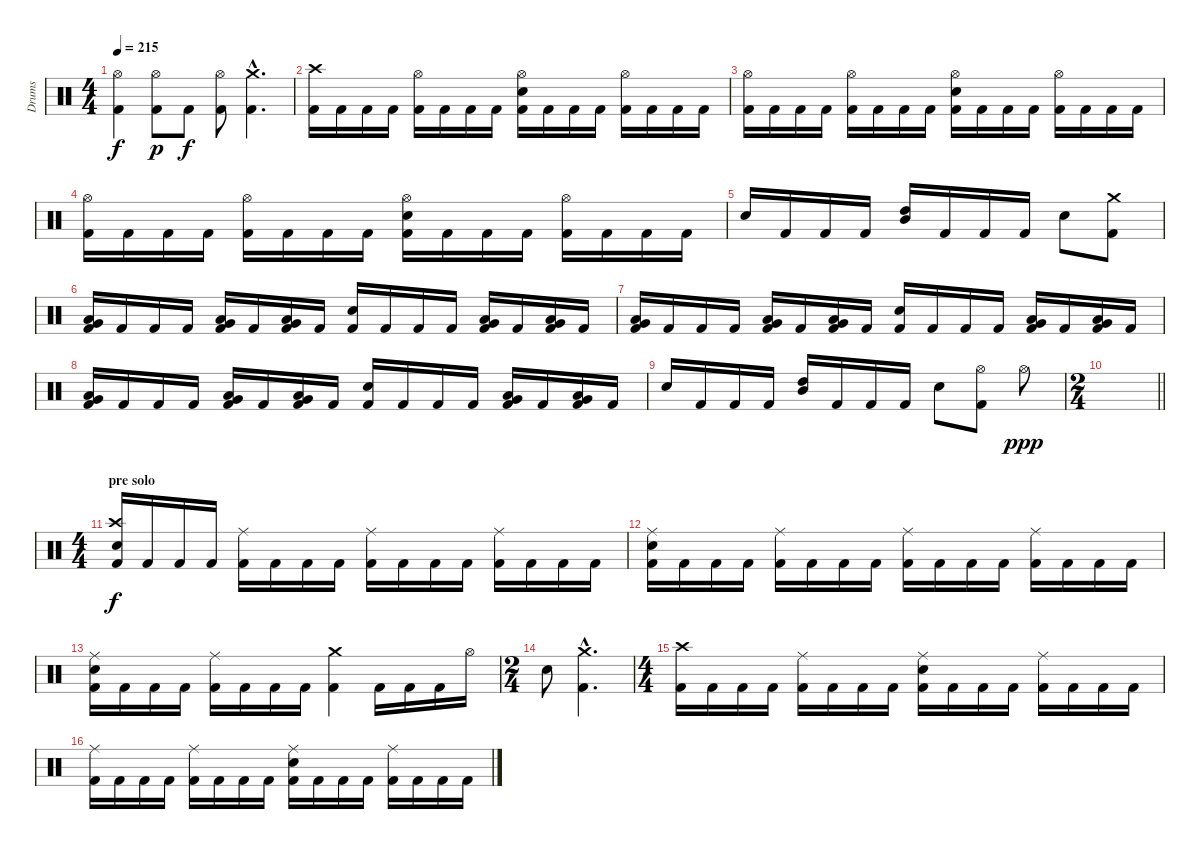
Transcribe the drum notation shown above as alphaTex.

\track ("Drums" "Drums") {instrument percussion}
\staff {score}
\articulation defaults
\ts (4 4)
\tempo 215
\clef neutral
\ks c
("Hi-Hat (open)" "Kick (hit) 2").4{dy f} ("Hi-Hat (open)" "Kick (hit) 2").8{dy p} "Kick (hit) 2".8{dy f} ("Hi-Hat (open)" "Kick (hit) 2").8 ("Crash medium (hit)"{hac} "Kick (hit) 2"{hac}).4{d} |
("Crash high (hit)" "Kick (hit) 2").16 "Kick (hit) 2".16 "Kick (hit) 2".16 "Kick (hit) 2".16 ("Hi-Hat (open)" "Kick (hit) 2").16 "Kick (hit) 2".16 "Kick (hit) 2".16 "Kick (hit) 2".16 ("Hi-Hat (open)" "Snare (hit) 2" "Kick (hit) 2").16 "Kick (hit) 2".16 "Kick (hit) 2".16 "Kick (hit) 2".16 ("Hi-Hat (open)" "Kick (hit) 2").16 "Kick (hit) 2".16 "Kick (hit) 2".16 "Kick (hit) 2".16 |
("Hi-Hat (open)" "Kick (hit) 2").16 "Kick (hit) 2".16 "Kick (hit) 2".16 "Kick (hit) 2".16 ("Hi-Hat (open)" "Kick (hit) 2").16 "Kick (hit) 2".16 "Kick (hit) 2".16 "Kick (hit) 2".16 ("Hi-Hat (open)" "Snare (hit) 2" "Kick (hit) 2").16 "Kick (hit) 2".16 "Kick (hit) 2".16 "Kick (hit) 2".16 ("Hi-Hat (open)" "Kick (hit) 2").16 "Kick (hit) 2".16 "Kick (hit) 2".16 "Kick (hit) 2".16 |
("Hi-Hat (open)" "Kick (hit) 2").16 "Kick (hit) 2".16 "Kick (hit) 2".16 "Kick (hit) 2".16 ("Hi-Hat (open)" "Kick (hit) 2").16 "Kick (hit) 2".16 "Kick (hit) 2".16 "Kick (hit) 2".16 ("Hi-Hat (open)" "Snare (hit) 2" "Kick (hit) 2").16 "Kick (hit) 2".16 "Kick (hit) 2".16 "Kick (hit) 2".16 ("Hi-Hat (open)" "Kick (hit) 2").16 "Kick (hit) 2".16 "Kick (hit) 2".16 "Kick (hit) 2".16 |
"Snare (hit) 2".16 "Kick (hit) 2".16 "Kick (hit) 2".16 "Kick (hit) 2".16 ("High Tom (hit)" "Mid Tom (hit)").16 "Kick (hit) 2".16 "Kick (hit) 2".16 "Kick (hit) 2".16 "Snare (hit) 2".8 ("Crash medium (hit)" "Kick (hit) 2").8 |
("Very Low Tom (hit)" "Low Tom (hit)" "Kick (hit) 2").16 "Kick (hit) 2".16 "Kick (hit) 2".16 "Kick (hit) 2".16 ("Very Low Tom (hit)" "Low Tom (hit)" "Kick (hit) 2").16 "Kick (hit) 2".16 ("Very Low Tom (hit)" "Low Tom (hit)" "Kick (hit) 2").16 "Kick (hit) 2".16 ("Snare (hit) 2" "Kick (hit) 2").16 "Kick (hit) 2".16 "Kick (hit) 2".16 "Kick (hit) 2".16 ("Very Low Tom (hit)" "Low Tom (hit)" "Kick (hit) 2").16 "Kick (hit) 2".16 ("Very Low Tom (hit)" "Low Tom (hit)" "Kick (hit) 2").16 "Kick (hit) 2".16 |
("Very Low Tom (hit)" "Low Tom (hit)" "Kick (hit) 2").16 "Kick (hit) 2".16 "Kick (hit) 2".16 "Kick (hit) 2".16 ("Very Low Tom (hit)" "Low Tom (hit)" "Kick (hit) 2").16 "Kick (hit) 2".16 ("Very Low Tom (hit)" "Low Tom (hit)" "Kick (hit) 2").16 "Kick (hit) 2".16 ("Snare (hit) 2" "Kick (hit) 2").16 "Kick (hit) 2".16 "Kick (hit) 2".16 "Kick (hit) 2".16 ("Very Low Tom (hit)" "Low Tom (hit)" "Kick (hit) 2").16 "Kick (hit) 2".16 ("Very Low Tom (hit)" "Low Tom (hit)" "Kick (hit) 2").16 "Kick (hit) 2".16 |
("Very Low Tom (hit)" "Low Tom (hit)" "Kick (hit) 2").16 "Kick (hit) 2".16 "Kick (hit) 2".16 "Kick (hit) 2".16 ("Very Low Tom (hit)" "Low Tom (hit)" "Kick (hit) 2").16 "Kick (hit) 2".16 ("Very Low Tom (hit)" "Low Tom (hit)" "Kick (hit) 2").16 "Kick (hit) 2".16 ("Snare (hit) 2" "Kick (hit) 2").16 "Kick (hit) 2".16 "Kick (hit) 2".16 "Kick (hit) 2".16 ("Very Low Tom (hit)" "Low Tom (hit)" "Kick (hit) 2").16 "Kick (hit) 2".16 ("Very Low Tom (hit)" "Low Tom (hit)" "Kick (hit) 2").16 "Kick (hit) 2".16 |
"Snare (hit) 2".16 "Kick (hit) 2".16 "Kick (hit) 2".16 "Kick (hit) 2".16 ("High Tom (hit)" "Mid Tom (hit)").16 "Kick (hit) 2".16 "Kick (hit) 2".16 "Kick (hit) 2".16 "Snare (hit) 2".8 ("Hi-Hat (open)" "Kick (hit) 2").8 "Hi-Hat (open)".8{dy ppp} |
\ts (2 4)
\barLineRight lightlight
|
\ts (4 4)
\section ("" "pre solo")
("Crash high (hit)" "Snare (hit) 2" "Kick (hit) 2").16{dy f} "Kick (hit) 2".16 "Kick (hit) 2".16 "Kick (hit) 2".16 ("Ride (middle)" "Kick (hit) 2").16 "Kick (hit) 2".16 "Kick (hit) 2".16 "Kick (hit) 2".16 ("Ride (middle)" "Kick (hit) 2").16 "Kick (hit) 2".16 "Kick (hit) 2".16 "Kick (hit) 2".16 ("Ride (middle)" "Kick (hit) 2").16 "Kick (hit) 2".16 "Kick (hit) 2".16 "Kick (hit) 2".16 |
("Ride (middle)" "Snare (hit) 2" "Kick (hit) 2").16 "Kick (hit) 2".16 "Kick (hit) 2".16 "Kick (hit) 2".16 ("Ride (middle)" "Kick (hit) 2").16 "Kick (hit) 2".16 "Kick (hit) 2".16 "Kick (hit) 2".16 ("Ride (middle)" "Kick (hit) 2").16 "Kick (hit) 2".16 "Kick (hit) 2".16 "Kick (hit) 2".16 ("Ride (middle)" "Kick (hit) 2").16 "Kick (hit) 2".16 "Kick (hit) 2".16 "Kick (hit) 2".16 |
("Ride (middle)" "Snare (hit) 2" "Kick (hit) 2").16 "Kick (hit) 2".16 "Kick (hit) 2".16 "Kick (hit) 2".16 ("Ride (middle)" "Kick (hit) 2").16 "Kick (hit) 2".16 "Kick (hit) 2".16 "Kick (hit) 2".16 ("Crash medium (hit)" "Kick (hit) 2").4 "Kick (hit) 2".16 "Kick (hit) 2".16 "Kick (hit) 2".16 "Hi-Hat (open)".16 |
\ts (2 4)
"Snare (hit) 2".8 ("Crash medium (hit)"{hac} "Kick (hit) 2"{hac}).4{d} |
\ts (4 4)
("Crash high (hit)" "Kick (hit) 2").16 "Kick (hit) 2".16 "Kick (hit) 2".16 "Kick (hit) 2".16 ("Ride (middle)" "Kick (hit) 2").16 "Kick (hit) 2".16 "Kick (hit) 2".16 "Kick (hit) 2".16 ("Ride (middle)" "Snare (hit) 2" "Kick (hit) 2").16 "Kick (hit) 2".16 "Kick (hit) 2".16 "Kick (hit) 2".16 ("Ride (middle)" "Kick (hit) 2").16 "Kick (hit) 2".16 "Kick (hit) 2".16 "Kick (hit) 2".16 |
("Ride (middle)" "Kick (hit) 2").16 "Kick (hit) 2".16 "Kick (hit) 2".16 "Kick (hit) 2".16 ("Ride (middle)" "Kick (hit) 2").16 "Kick (hit) 2".16 "Kick (hit) 2".16 "Kick (hit) 2".16 ("Ride (middle)" "Snare (hit) 2" "Kick (hit) 2").16 "Kick (hit) 2".16 "Kick (hit) 2".16 "Kick (hit) 2".16 ("Ride (middle)" "Kick (hit) 2").16 "Kick (hit) 2".16 "Kick (hit) 2".16 "Kick (hit) 2".16
